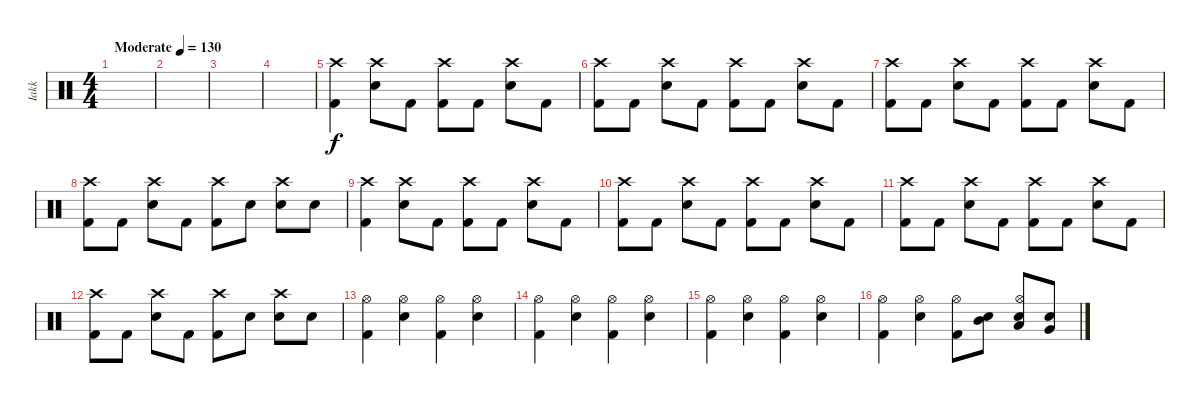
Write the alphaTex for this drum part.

\track ("Iakk" "Iakk") {instrument percussion}
\staff {score}
\articulation defaults
\ts (4 4)
\tempo (130 "Moderate")
\clef neutral
\ks c
|
|
|
|
("Crash high (hit)" "Kick (hit) 2").4 ("Crash high (hit)" "Electric Snare (hit)").8 "Kick (hit) 2".8 ("Crash high (hit)" "Kick (hit) 2").8 "Kick (hit) 2".8 ("Crash high (hit)" "Electric Snare (hit)").8 "Kick (hit) 2".8 |
("Crash high (hit)" "Kick (hit) 2").8 "Kick (hit) 2".8 ("Crash high (hit)" "Electric Snare (hit)").8 "Kick (hit) 2".8 ("Crash high (hit)" "Kick (hit) 2").8 "Kick (hit) 2".8 ("Crash high (hit)" "Electric Snare (hit)").8 "Kick (hit) 2".8 |
("Crash high (hit)" "Kick (hit) 2").8 "Kick (hit) 2".8 ("Crash high (hit)" "Electric Snare (hit)").8 "Kick (hit) 2".8 ("Crash high (hit)" "Kick (hit) 2").8 "Kick (hit) 2".8 ("Crash high (hit)" "Electric Snare (hit)").8 "Kick (hit) 2".8 |
("Crash high (hit)" "Kick (hit) 2").8 "Kick (hit) 2".8 ("Crash high (hit)" "Electric Snare (hit)").8 "Kick (hit) 2".8 ("Crash high (hit)" "Kick (hit) 2").8 "Electric Snare (hit)".8 ("Crash high (hit)" "Electric Snare (hit)").8 "Electric Snare (hit)".8 |
("Crash high (hit)" "Kick (hit) 2").4 ("Crash high (hit)" "Electric Snare (hit)").8 "Kick (hit) 2".8 ("Crash high (hit)" "Kick (hit) 2").8 "Kick (hit) 2".8 ("Crash high (hit)" "Electric Snare (hit)").8 "Kick (hit) 2".8 |
("Crash high (hit)" "Kick (hit) 2").8 "Kick (hit) 2".8 ("Crash high (hit)" "Electric Snare (hit)").8 "Kick (hit) 2".8 ("Crash high (hit)" "Kick (hit) 2").8 "Kick (hit) 2".8 ("Crash high (hit)" "Electric Snare (hit)").8 "Kick (hit) 2".8 |
("Crash high (hit)" "Kick (hit) 2").8 "Kick (hit) 2".8 ("Crash high (hit)" "Electric Snare (hit)").8 "Kick (hit) 2".8 ("Crash high (hit)" "Kick (hit) 2").8 "Kick (hit) 2".8 ("Crash high (hit)" "Electric Snare (hit)").8 "Kick (hit) 2".8 |
("Crash high (hit)" "Kick (hit) 2").8 "Kick (hit) 2".8 ("Crash high (hit)" "Electric Snare (hit)").8 "Kick (hit) 2".8 ("Crash high (hit)" "Kick (hit) 2").8 "Electric Snare (hit)".8 ("Crash high (hit)" "Electric Snare (hit)").8 "Electric Snare (hit)".8 |
("Hi-Hat (open)" "Kick (hit) 2").4 ("Hi-Hat (open)" "Electric Snare (hit)").4 ("Hi-Hat (open)" "Kick (hit) 2").4 ("Hi-Hat (open)" "Electric Snare (hit)").4 |
("Hi-Hat (open)" "Kick (hit) 2").4 ("Hi-Hat (open)" "Electric Snare (hit)").4 ("Hi-Hat (open)" "Kick (hit) 2").4 ("Hi-Hat (open)" "Electric Snare (hit)").4 |
("Hi-Hat (open)" "Kick (hit) 2").4 ("Hi-Hat (open)" "Electric Snare (hit)").4 ("Hi-Hat (open)" "Kick (hit) 2").4 ("Hi-Hat (open)" "Electric Snare (hit)").4 |
("Hi-Hat (open)" "Kick (hit) 2").4 ("Hi-Hat (open)" "Electric Snare (hit)").4 ("Hi-Hat (open)" "Kick (hit) 2").8 ("Electric Snare (hit)" "Mid Tom (hit)").8 ("Hi-Hat (open)" "Electric Snare (hit)" "Low Tom (hit)").8 ("Electric Snare (hit)" "Very Low Tom (hit)").8
